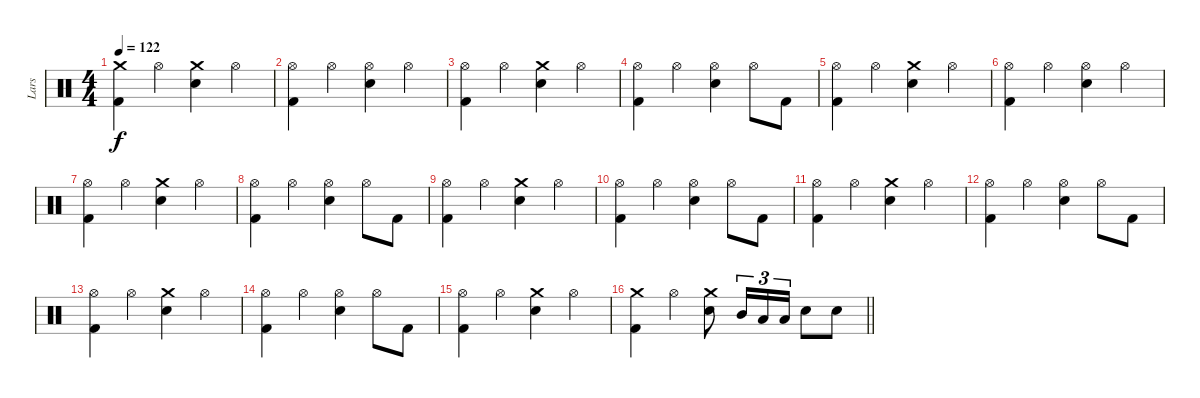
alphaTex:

\track ("Lars" "Lars") {instrument percussion}
\staff {score}
\articulation defaults
\ts (4 4)
\tempo 122
\clef neutral
\ks c
("Crash medium (hit)" "Kick (hit) 2").4{dy f} "Hi-Hat (open)".4 ("Crash medium (hit)" "Snare (hit) 2").4 "Hi-Hat (open)".4 |
("Hi-Hat (open)" "Kick (hit) 2").4 "Hi-Hat (open)".4 ("Hi-Hat (open)" "Snare (hit) 2").4 "Hi-Hat (open)".4 |
("Hi-Hat (open)" "Kick (hit) 2").4 "Hi-Hat (open)".4 ("Crash medium (hit)" "Snare (hit) 2").4 "Hi-Hat (open)".4 |
("Hi-Hat (open)" "Kick (hit) 2").4 "Hi-Hat (open)".4 ("Hi-Hat (open)" "Snare (hit) 2").4 "Hi-Hat (open)".8 "Kick (hit) 2".8 |
("Hi-Hat (open)" "Kick (hit) 2").4 "Hi-Hat (open)".4 ("Crash medium (hit)" "Snare (hit) 2").4 "Hi-Hat (open)".4 |
("Hi-Hat (open)" "Kick (hit) 2").4 "Hi-Hat (open)".4 ("Hi-Hat (open)" "Snare (hit) 2").4 "Hi-Hat (open)".4 |
("Hi-Hat (open)" "Kick (hit) 2").4 "Hi-Hat (open)".4 ("Crash medium (hit)" "Snare (hit) 2").4 "Hi-Hat (open)".4 |
("Hi-Hat (open)" "Kick (hit) 2").4 "Hi-Hat (open)".4 ("Hi-Hat (open)" "Snare (hit) 2").4 "Hi-Hat (open)".8 "Kick (hit) 2".8 |
("Hi-Hat (open)" "Kick (hit) 2").4 "Hi-Hat (open)".4 ("Crash medium (hit)" "Snare (hit) 2").4 "Hi-Hat (open)".4 |
("Hi-Hat (open)" "Kick (hit) 2").4 "Hi-Hat (open)".4 ("Hi-Hat (open)" "Snare (hit) 2").4 "Hi-Hat (open)".8 "Kick (hit) 2".8 |
("Hi-Hat (open)" "Kick (hit) 2").4 "Hi-Hat (open)".4 ("Crash medium (hit)" "Snare (hit) 2").4 "Hi-Hat (open)".4 |
("Hi-Hat (open)" "Kick (hit) 2").4 "Hi-Hat (open)".4 ("Hi-Hat (open)" "Snare (hit) 2").4 "Hi-Hat (open)".8 "Kick (hit) 2".8 |
("Hi-Hat (open)" "Kick (hit) 2").4 "Hi-Hat (open)".4 ("Crash medium (hit)" "Snare (hit) 2").4 "Hi-Hat (open)".4 |
("Hi-Hat (open)" "Kick (hit) 2").4 "Hi-Hat (open)".4 ("Hi-Hat (open)" "Snare (hit) 2").4 "Hi-Hat (open)".8 "Kick (hit) 2".8 |
("Hi-Hat (open)" "Kick (hit) 2").4 "Hi-Hat (open)".4 ("Crash medium (hit)" "Snare (hit) 2").4 "Hi-Hat (open)".4 |
\barLineRight lightlight
("Crash medium (hit)" "Kick (hit) 2").4 "Hi-Hat (open)".4 ("Crash medium (hit)" "Snare (hit) 2").8 "Mid Tom (hit)".16{tu (3 2)} "Low Tom (hit)".16{tu (3 2)} "Low Tom (hit)".16{tu (3 2)} "Snare (hit) 2".8 "Snare (hit) 2".8
